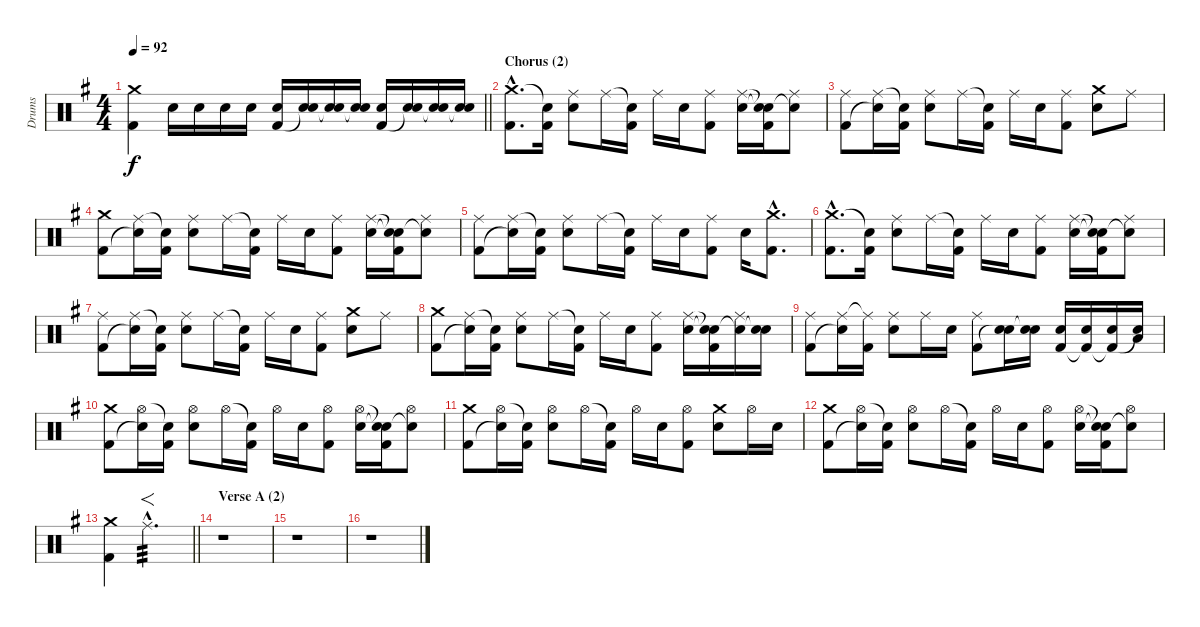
\track ("Drums" "Drums") {instrument percussion}
\staff {score}
\articulation defaults
\ts (4 4)
\tempo 92
\clef neutral
\barLineRight lightlight
\ks g
("Crash medium (hit)" "Kick (hit) 2").4{dy f} "Electric Snare (hit)".16 "Electric Snare (hit)".16 "Electric Snare (hit)".16 "Electric Snare (hit)".16 ("Electric Snare (hit)" "Kick (hit) 2").16 ("Electric Snare (hit)" "Snare (hit)"{t}).16 ("Electric Snare (hit)" "Snare (hit)"{t}).16 ("Electric Snare (hit)" "Snare (hit)"{t}).16 ("Electric Snare (hit)" "Kick (hit) 2").16 ("Electric Snare (hit)" "Snare (hit)"{t}).16 ("Electric Snare (hit)" "Snare (hit)"{t}).16 ("Electric Snare (hit)" "Snare (hit)"{t}).16 |
\section ("" "Chorus (2)")
("Crash medium (hit)"{hac} "Kick (hit) 2"{hac}).8{d} ("Snare (hit)"{t} "Kick (hit) 2").16 ("Ride (middle)" "Electric Snare (hit)").8 "Ride (middle)".16 ("Snare (hit)"{t} "Kick (hit) 2").16 "Ride (middle)".16 "Electric Snare (hit)".16 ("Ride (middle)" "Kick (hit) 2").8 ("Ride (middle)" "Electric Snare (hit)").16 ("Snare (hit)"{t} "Snare (hit)"{t} "Kick (hit) 2").16 ("Ride (middle)" "Snare (hit)"{t}).8 |
("Ride (middle)" "Kick (hit) 2").8 ("Ride (middle)" "Snare (hit)"{t}).16 ("Snare (hit)"{t} "Kick (hit) 2").16 ("Ride (middle)" "Electric Snare (hit)").8 "Ride (middle)".16 ("Snare (hit)"{t} "Kick (hit) 2").16 "Ride (middle)".16 "Electric Snare (hit)".16 ("Ride (middle)" "Kick (hit) 2").8 ("Crash medium (hit)" "Electric Snare (hit)").8 "Ride (middle)".8 |
("Crash medium (hit)" "Kick (hit) 2").8 ("Ride (middle)" "Snare (hit)"{t}).16 ("Snare (hit)"{t} "Kick (hit) 2").16 ("Ride (middle)" "Electric Snare (hit)").8 "Ride (middle)".16 ("Snare (hit)"{t} "Kick (hit) 2").16 "Ride (middle)".16 "Electric Snare (hit)".16 ("Ride (middle)" "Kick (hit) 2").8 ("Ride (middle)" "Electric Snare (hit)").16 ("Snare (hit)"{t} "Snare (hit)"{t} "Kick (hit) 2").16 ("Ride (middle)" "Snare (hit)"{t}).8 |
("Ride (middle)" "Kick (hit) 2").8 ("Ride (middle)" "Snare (hit)"{t}).16 ("Snare (hit)"{t} "Kick (hit) 2").16 ("Ride (middle)" "Electric Snare (hit)").8 "Ride (middle)".16 ("Snare (hit)"{t} "Kick (hit) 2").16 "Ride (middle)".16 "Electric Snare (hit)".16 ("Ride (middle)" "Kick (hit) 2").8 "Electric Snare (hit)".16 ("Crash medium (hit)"{hac} "Kick (hit) 2"{hac}).8{d} |
("Crash medium (hit)"{hac} "Kick (hit) 2"{hac}).8{d} ("Snare (hit)"{t} "Kick (hit) 2").16 ("Ride (middle)" "Electric Snare (hit)").8 "Ride (middle)".16 ("Snare (hit)"{t} "Kick (hit) 2").16 "Ride (middle)".16 "Electric Snare (hit)".16 ("Ride (middle)" "Kick (hit) 2").8 ("Ride (middle)" "Electric Snare (hit)").16 ("Snare (hit)"{t} "Snare (hit)"{t} "Kick (hit) 2").16 ("Ride (middle)" "Snare (hit)"{t}).8 |
("Ride (middle)" "Kick (hit) 2").8 ("Ride (middle)" "Snare (hit)"{t}).16 ("Snare (hit)"{t} "Kick (hit) 2").16 ("Ride (middle)" "Electric Snare (hit)").8 "Ride (middle)".16 ("Snare (hit)"{t} "Kick (hit) 2").16 "Ride (middle)".16 "Electric Snare (hit)".16 ("Ride (middle)" "Kick (hit) 2").8 ("Crash medium (hit)" "Electric Snare (hit)").8 "Ride (middle)".8 |
("Crash medium (hit)" "Kick (hit) 2").8 ("Ride (middle)" "Snare (hit)"{t}).16 ("Snare (hit)"{t} "Kick (hit) 2").16 ("Ride (middle)" "Electric Snare (hit)").8 "Ride (middle)".16 ("Snare (hit)"{t} "Kick (hit) 2").16 "Ride (middle)".16 "Electric Snare (hit)".16 ("Ride (middle)" "Kick (hit) 2").8 ("Ride (middle)" "Electric Snare (hit)").16 ("Snare (hit)"{t} "Snare (hit)"{t} "Kick (hit) 2").16 ("Ride (middle)" "Snare (hit)"{t}).16 ("Electric Snare (hit)" "Snare (hit)"{t}).16 |
("Ride (middle)" "Kick (hit) 2").8 ("Ride (middle)" "Snare (hit)"{t}).16 ("Ride (middle)"{t} "Kick (hit) 2").16 ("Ride (middle)" "Electric Snare (hit)").8 "Ride (middle)".16 "Electric Snare (hit)".16 ("Ride (middle)" "Kick (hit) 2").8 ("Electric Snare (hit)" "Snare (hit)"{t}).16 ("Electric Snare (hit)" "Snare (hit)"{t}).16 ("Electric Snare (hit)" "Kick (hit) 2").16 ("Electric Snare (hit)" "Kick (hit) 2"{t}).16 ("Electric Snare (hit)" "Kick (hit) 2"{t}).16 ("Low Tom (hit)" "Snare (hit)"{t}).16 |
("Crash medium (hit)" "Kick (hit) 2").8 ("Hi-Hat (open)" "Snare (hit)"{t}).16 ("Snare (hit)"{t} "Kick (hit) 2").16 ("Hi-Hat (open)" "Electric Snare (hit)").8 "Hi-Hat (open)".16 ("Snare (hit)"{t} "Kick (hit) 2").16 "Hi-Hat (open)".16 "Electric Snare (hit)".16 ("Hi-Hat (open)" "Kick (hit) 2").8 ("Hi-Hat (open)" "Electric Snare (hit)").16 ("Snare (hit)"{t} "Snare (hit)"{t} "Kick (hit) 2").16 ("Hi-Hat (open)" "Snare (hit)"{t}).8 |
("Crash medium (hit)" "Kick (hit) 2").8 ("Hi-Hat (open)" "Snare (hit)"{t}).16 ("Snare (hit)"{t} "Kick (hit) 2").16 ("Hi-Hat (open)" "Electric Snare (hit)").8 "Hi-Hat (open)".16 ("Snare (hit)"{t} "Kick (hit) 2").16 "Hi-Hat (open)".16 "Electric Snare (hit)".16 ("Hi-Hat (open)" "Kick (hit) 2").8 ("Crash medium (hit)" "Electric Snare (hit)").8 "Hi-Hat (open)".16 "Electric Snare (hit)".16 |
("Crash medium (hit)" "Kick (hit) 2").8 ("Hi-Hat (open)" "Snare (hit)"{t}).16 ("Snare (hit)"{t} "Kick (hit) 2").16 ("Hi-Hat (open)" "Electric Snare (hit)").8 "Hi-Hat (open)".16 ("Snare (hit)"{t} "Kick (hit) 2").16 "Hi-Hat (open)".16 "Electric Snare (hit)".16 ("Hi-Hat (open)" "Kick (hit) 2").8 ("Hi-Hat (open)" "Electric Snare (hit)").16 ("Snare (hit)"{t} "Snare (hit)"{t} "Kick (hit) 2").16 ("Hi-Hat (open)" "Snare (hit)"{t}).8 |
\barLineRight lightlight
("Crash medium (hit)" "Kick (hit) 2").4 "Ride (middle)"{hac}.2{f d tp 3} |
\section ("" "Verse A (2)")
r.1 |
r.1 |
r.1
